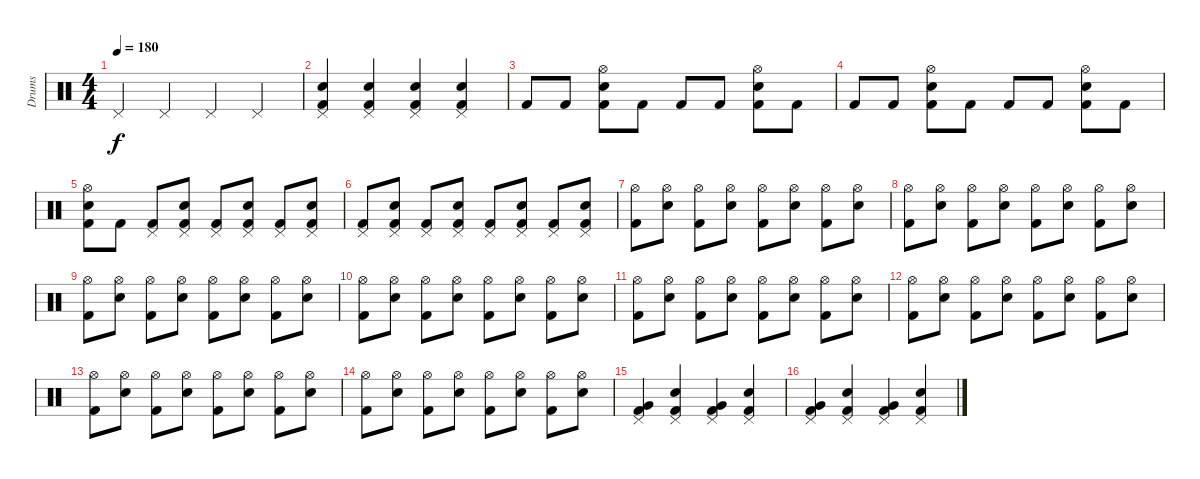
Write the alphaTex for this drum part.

\track ("Drums" "Drums") {instrument percussion}
\staff {score}
\articulation defaults
\ts (4 4)
\tempo 180
\clef neutral
\ks c "Pedal Hi-Hat (hit)".4{dy f} "Pedal Hi-Hat (hit)".4 "Pedal Hi-Hat (hit)".4 "Pedal Hi-Hat (hit)".4
|
("Snare (hit) 2" "Kick (hit) 2" "Pedal Hi-Hat (hit)").4 ("Snare (hit) 2" "Kick (hit) 2" "Pedal Hi-Hat (hit)").4 ("Snare (hit) 2" "Kick (hit) 2" "Pedal Hi-Hat (hit)").4 ("Snare (hit) 2" "Kick (hit) 2" "Pedal Hi-Hat (hit)").4 |
"Kick (hit) 2".8 "Kick (hit) 2".8 ("Kick (hit) 2" "Electric Snare (hit)" "Hi-Hat (open)").8 "Kick (hit) 2".8 "Kick (hit) 2".8 "Kick (hit) 2".8 ("Kick (hit) 2" "Electric Snare (hit)" "Hi-Hat (open)").8 "Kick (hit) 2".8 |
"Kick (hit) 2".8 "Kick (hit) 2".8 ("Kick (hit) 2" "Electric Snare (hit)" "Hi-Hat (open)").8 "Kick (hit) 2".8 "Kick (hit) 2".8 "Kick (hit) 2".8 ("Kick (hit) 2" "Electric Snare (hit)" "Hi-Hat (open)").8 "Kick (hit) 2".8 |
("Kick (hit) 2" "Electric Snare (hit)" "Hi-Hat (open)").8 "Kick (hit) 2".8 ("Kick (hit) 2" "Pedal Hi-Hat (hit)").8 ("Kick (hit) 2" "Electric Snare (hit)" "Pedal Hi-Hat (hit)").8 ("Kick (hit) 2" "Pedal Hi-Hat (hit)").8 ("Kick (hit) 2" "Electric Snare (hit)" "Pedal Hi-Hat (hit)").8 ("Kick (hit) 2" "Pedal Hi-Hat (hit)").8 ("Kick (hit) 2" "Electric Snare (hit)" "Pedal Hi-Hat (hit)").8 |
("Kick (hit) 2" "Pedal Hi-Hat (hit)").8 ("Kick (hit) 2" "Electric Snare (hit)" "Pedal Hi-Hat (hit)").8 ("Kick (hit) 2" "Pedal Hi-Hat (hit)").8 ("Kick (hit) 2" "Electric Snare (hit)" "Pedal Hi-Hat (hit)").8 ("Kick (hit) 2" "Pedal Hi-Hat (hit)").8 ("Kick (hit) 2" "Electric Snare (hit)" "Pedal Hi-Hat (hit)").8 ("Kick (hit) 2" "Pedal Hi-Hat (hit)").8 ("Kick (hit) 2" "Electric Snare (hit)" "Pedal Hi-Hat (hit)").8 |
("Kick (hit) 2" "Hi-Hat (open)").8 ("Electric Snare (hit)" "Hi-Hat (open)").8 ("Kick (hit) 2" "Hi-Hat (open)").8 ("Electric Snare (hit)" "Hi-Hat (open)").8 ("Kick (hit) 2" "Hi-Hat (open)").8 ("Electric Snare (hit)" "Hi-Hat (open)").8 ("Kick (hit) 2" "Hi-Hat (open)").8 ("Electric Snare (hit)" "Hi-Hat (open)").8 |
("Kick (hit) 2" "Hi-Hat (open)").8 ("Electric Snare (hit)" "Hi-Hat (open)").8 ("Kick (hit) 2" "Hi-Hat (open)").8 ("Electric Snare (hit)" "Hi-Hat (open)").8 ("Kick (hit) 2" "Hi-Hat (open)").8 ("Electric Snare (hit)" "Hi-Hat (open)").8 ("Kick (hit) 2" "Hi-Hat (open)").8 ("Electric Snare (hit)" "Hi-Hat (open)").8 |
("Kick (hit) 2" "Hi-Hat (open)").8 ("Electric Snare (hit)" "Hi-Hat (open)").8 ("Kick (hit) 2" "Hi-Hat (open)").8 ("Electric Snare (hit)" "Hi-Hat (open)").8 ("Kick (hit) 2" "Hi-Hat (open)").8 ("Electric Snare (hit)" "Hi-Hat (open)").8 ("Kick (hit) 2" "Hi-Hat (open)").8 ("Electric Snare (hit)" "Hi-Hat (open)").8 |
("Kick (hit) 2" "Hi-Hat (open)").8 ("Electric Snare (hit)" "Hi-Hat (open)").8 ("Kick (hit) 2" "Hi-Hat (open)").8 ("Electric Snare (hit)" "Hi-Hat (open)").8 ("Kick (hit) 2" "Hi-Hat (open)").8 ("Electric Snare (hit)" "Hi-Hat (open)").8 ("Kick (hit) 2" "Hi-Hat (open)").8 ("Electric Snare (hit)" "Hi-Hat (open)").8 |
("Kick (hit) 2" "Hi-Hat (open)").8 ("Electric Snare (hit)" "Hi-Hat (open)").8 ("Kick (hit) 2" "Hi-Hat (open)").8 ("Electric Snare (hit)" "Hi-Hat (open)").8 ("Kick (hit) 2" "Hi-Hat (open)").8 ("Electric Snare (hit)" "Hi-Hat (open)").8 ("Kick (hit) 2" "Hi-Hat (open)").8 ("Electric Snare (hit)" "Hi-Hat (open)").8 |
("Kick (hit) 2" "Hi-Hat (open)").8 ("Electric Snare (hit)" "Hi-Hat (open)").8 ("Kick (hit) 2" "Hi-Hat (open)").8 ("Electric Snare (hit)" "Hi-Hat (open)").8 ("Kick (hit) 2" "Hi-Hat (open)").8 ("Electric Snare (hit)" "Hi-Hat (open)").8 ("Kick (hit) 2" "Hi-Hat (open)").8 ("Electric Snare (hit)" "Hi-Hat (open)").8 |
("Kick (hit) 2" "Hi-Hat (open)").8 ("Electric Snare (hit)" "Hi-Hat (open)").8 ("Kick (hit) 2" "Hi-Hat (open)").8 ("Electric Snare (hit)" "Hi-Hat (open)").8 ("Kick (hit) 2" "Hi-Hat (open)").8 ("Electric Snare (hit)" "Hi-Hat (open)").8 ("Kick (hit) 2" "Hi-Hat (open)").8 ("Electric Snare (hit)" "Hi-Hat (open)").8 |
("Kick (hit) 2" "Hi-Hat (open)").8 ("Electric Snare (hit)" "Hi-Hat (open)").8 ("Kick (hit) 2" "Hi-Hat (open)").8 ("Electric Snare (hit)" "Hi-Hat (open)").8 ("Kick (hit) 2" "Hi-Hat (open)").8 ("Electric Snare (hit)" "Hi-Hat (open)").8 ("Kick (hit) 2" "Hi-Hat (open)").8 ("Electric Snare (hit)" "Hi-Hat (open)").8 |
("Very Low Tom (hit)" "Kick (hit) 2" "Pedal Hi-Hat (hit)").4 ("Snare (hit) 2" "Kick (hit) 2" "Pedal Hi-Hat (hit)").4 ("Very Low Tom (hit)" "Kick (hit) 2" "Pedal Hi-Hat (hit)").4 ("Snare (hit) 2" "Kick (hit) 2" "Pedal Hi-Hat (hit)").4 |
("Very Low Tom (hit)" "Kick (hit) 2" "Pedal Hi-Hat (hit)").4 ("Snare (hit) 2" "Kick (hit) 2" "Pedal Hi-Hat (hit)").4 ("Very Low Tom (hit)" "Kick (hit) 2" "Pedal Hi-Hat (hit)").4 ("Snare (hit) 2" "Kick (hit) 2" "Pedal Hi-Hat (hit)").4
